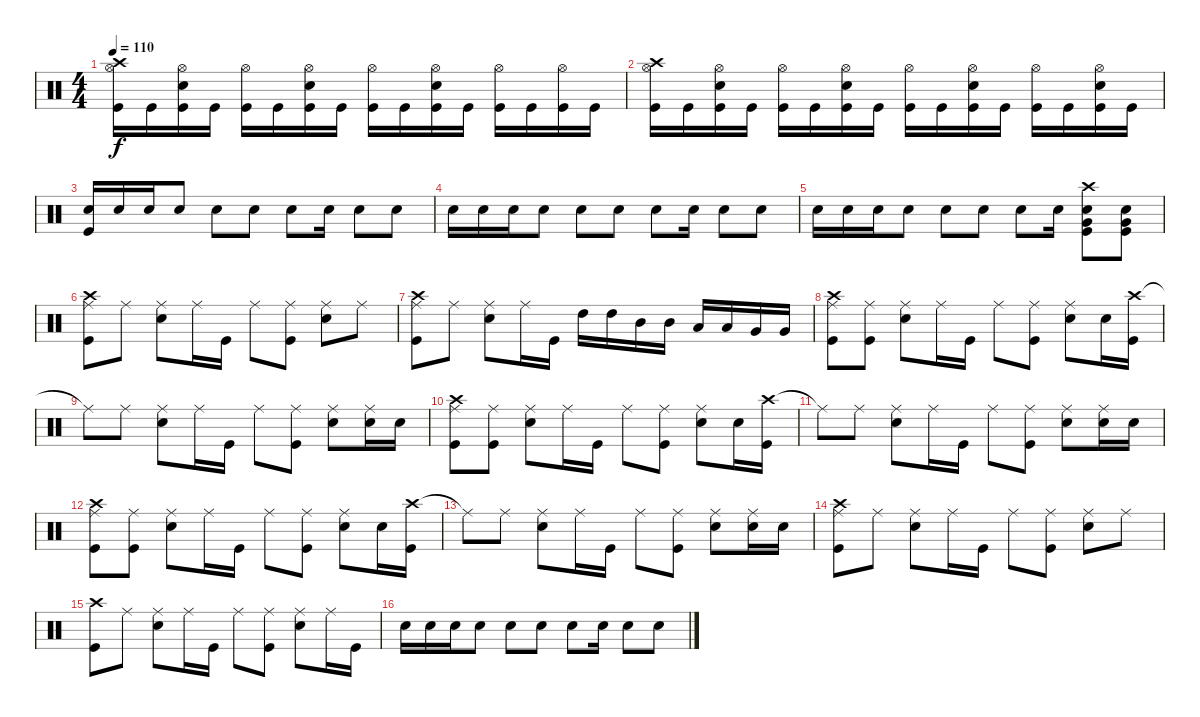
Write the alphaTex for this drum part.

\track "" {instrument percussion}
\staff {score}
\articulation defaults
\ts (4 4)
\tempo 110
\clef neutral
\ks c
("Crash high (hit)" "Kick (hit)" "Hi-Hat (open)").16{dy f} "Kick (hit)".16 ("Kick (hit)" "Electric Snare (hit)" "Hi-Hat (open)").16 "Kick (hit)".16 ("Kick (hit)" "Hi-Hat (open)").16 "Kick (hit)".16 ("Kick (hit)" "Electric Snare (hit)" "Hi-Hat (open)").16 "Kick (hit)".16 ("Hi-Hat (open)" "Kick (hit)").16 "Kick (hit)".16 ("Kick (hit)" "Hi-Hat (open)" "Electric Snare (hit)").16 "Kick (hit)".16 ("Hi-Hat (open)" "Kick (hit)").16 "Kick (hit)".16 ("Kick (hit)" "Hi-Hat (open)").16 "Kick (hit)".16 |
("Crash high (hit)" "Kick (hit)" "Hi-Hat (open)").16 "Kick (hit)".16 ("Kick (hit)" "Electric Snare (hit)" "Hi-Hat (open)").16 "Kick (hit)".16 ("Kick (hit)" "Hi-Hat (open)").16 "Kick (hit)".16 ("Kick (hit)" "Electric Snare (hit)" "Hi-Hat (open)").16 "Kick (hit)".16 ("Hi-Hat (open)" "Kick (hit)").16 "Kick (hit)".16 ("Kick (hit)" "Hi-Hat (open)" "Electric Snare (hit)").16 "Kick (hit)".16 ("Hi-Hat (open)" "Kick (hit)").16 "Kick (hit)".16 ("Kick (hit)" "Hi-Hat (open)" "Electric Snare (hit)").16 "Kick (hit)".16 |
("Snare (hit) 2" "Kick (hit)").16 "Snare (hit) 2".16 "Snare (hit) 2".16 "Snare (hit) 2".8 "Snare (hit) 2".8 "Snare (hit) 2".8 "Snare (hit) 2".8 "Snare (hit) 2".16 "Snare (hit) 2".8 "Snare (hit) 2".8 |
"Snare (hit) 2".16 "Snare (hit) 2".16 "Snare (hit) 2".16 "Snare (hit) 2".8 "Snare (hit) 2".8 "Snare (hit) 2".8 "Snare (hit) 2".8 "Snare (hit) 2".16 "Snare (hit) 2".8 "Snare (hit) 2".8 |
"Snare (hit) 2".16 "Snare (hit) 2".16 "Snare (hit) 2".16 "Snare (hit) 2".8 "Snare (hit) 2".8 "Snare (hit) 2".8 "Snare (hit) 2".8 "Snare (hit) 2".16 ("Snare (hit) 2" "Crash high (hit)" "Very Low Tom (hit)" "Kick (hit)").8 ("Snare (hit) 2" "Very Low Tom (hit)" "Kick (hit)").8 |
("Ride (middle)" "Kick (hit)" "Crash high (hit)").8 "Ride (middle)".8 ("Ride (middle)" "Snare (hit) 2").8 "Ride (middle)".16 "Kick (hit)".16 "Ride (middle)".8 ("Ride (middle)" "Kick (hit)").8 ("Snare (hit) 2" "Ride (middle)").8 "Ride (middle)".8 |
("Ride (middle)" "Kick (hit)" "Crash high (hit)").8 "Ride (middle)".8 ("Ride (middle)" "Snare (hit) 2").8 "Ride (middle)".16 "Kick (hit)".16 "High Tom (hit)".16 "High Tom (hit)".16 "Mid Tom (hit)".16 "Mid Tom (hit)".16 "Low Tom (hit)".16 "Low Tom (hit)".16 "Very Low Tom (hit)".16 "Very Low Tom (hit)".16 |
("Ride (middle)" "Kick (hit)" "Crash high (hit)").8 ("Ride (middle)" "Kick (hit)").8 ("Ride (middle)" "Snare (hit) 2").8 "Ride (middle)".16 "Kick (hit)".16 "Ride (middle)".8 ("Ride (middle)" "Kick (hit)").8 ("Snare (hit) 2" "Ride (middle)").8 "Snare (hit) 2".16 ("Crash high (hit)" "Kick (hit)").16 |
"Ride (middle)"{t}.8 "Ride (middle)".8 ("Ride (middle)" "Snare (hit) 2").8 "Ride (middle)".16 "Kick (hit)".16 "Ride (middle)".8 ("Ride (middle)" "Kick (hit)").8 ("Snare (hit) 2" "Ride (middle)").8 ("Ride (middle)" "Snare (hit) 2").16 "Snare (hit) 2".16 |
("Ride (middle)" "Kick (hit)" "Crash high (hit)").8 ("Ride (middle)" "Kick (hit)").8 ("Ride (middle)" "Snare (hit) 2").8 "Ride (middle)".16 "Kick (hit)".16 "Ride (middle)".8 ("Ride (middle)" "Kick (hit)").8 ("Snare (hit) 2" "Ride (middle)").8 "Snare (hit) 2".16 ("Crash high (hit)" "Kick (hit)").16 |
"Ride (middle)"{t}.8 "Ride (middle)".8 ("Ride (middle)" "Snare (hit) 2").8 "Ride (middle)".16 "Kick (hit)".16 "Ride (middle)".8 ("Ride (middle)" "Kick (hit)").8 ("Snare (hit) 2" "Ride (middle)").8 ("Ride (middle)" "Snare (hit) 2").16 "Snare (hit) 2".16 |
("Ride (middle)" "Kick (hit)" "Crash high (hit)").8 ("Ride (middle)" "Kick (hit)").8 ("Ride (middle)" "Snare (hit) 2").8 "Ride (middle)".16 "Kick (hit)".16 "Ride (middle)".8 ("Ride (middle)" "Kick (hit)").8 ("Snare (hit) 2" "Ride (middle)").8 "Snare (hit) 2".16 ("Crash high (hit)" "Kick (hit)").16 |
"Ride (middle)"{t}.8 "Ride (middle)".8 ("Ride (middle)" "Snare (hit) 2").8 "Ride (middle)".16 "Kick (hit)".16 "Ride (middle)".8 ("Ride (middle)" "Kick (hit)").8 ("Snare (hit) 2" "Ride (middle)").8 ("Ride (middle)" "Snare (hit) 2").16 "Snare (hit) 2".16 |
("Ride (middle)" "Kick (hit)" "Crash high (hit)").8 "Ride (middle)".8 ("Ride (middle)" "Snare (hit) 2").8 "Ride (middle)".16 "Kick (hit)".16 "Ride (middle)".8 ("Ride (middle)" "Kick (hit)").8 ("Snare (hit) 2" "Ride (middle)").8 "Ride (middle)".8 |
("Crash high (hit)" "Kick (hit)").8 "Ride (middle)".8 ("Ride (middle)" "Snare (hit) 2").8 "Ride (middle)".16 "Kick (hit)".16 "Ride (middle)".8 ("Ride (middle)" "Kick (hit)").8 ("Snare (hit) 2" "Ride (middle)").8 "Ride (middle)".16 "Kick (hit)".16 |
"Snare (hit) 2".16 "Snare (hit) 2".16 "Snare (hit) 2".16 "Snare (hit) 2".8 "Snare (hit) 2".8 "Snare (hit) 2".8 "Snare (hit) 2".8 "Snare (hit) 2".16 "Snare (hit) 2".8 "Snare (hit) 2".8
